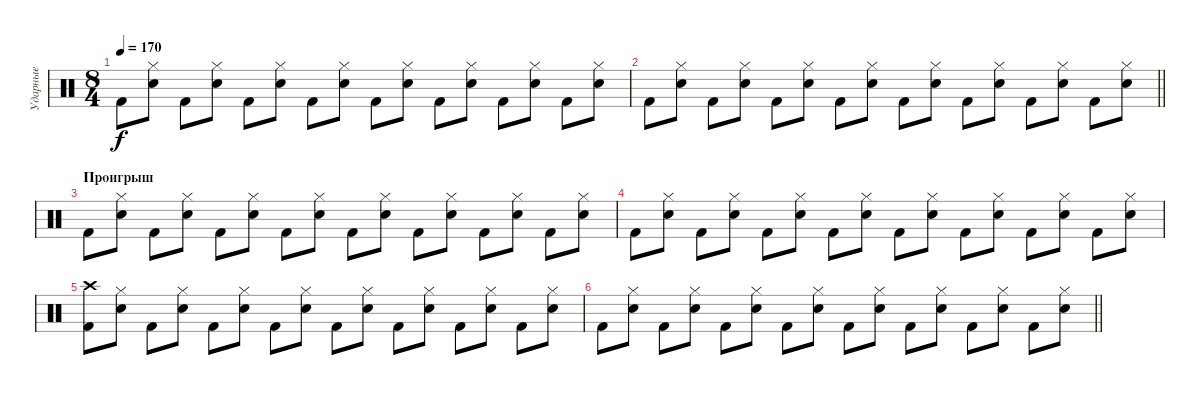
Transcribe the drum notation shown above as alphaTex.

\track ("Ударные" "Ударные") {instrument percussion}
\staff {score}
\articulation defaults
\ts (8 4)
\tempo 170
\clef neutral
\ks c "Kick (hit) 2".8{dy f}
("Hi-Hat (closed)" "Electric Snare (hit)").8 "Kick (hit) 2".8 ("Hi-Hat (closed)" "Electric Snare (hit)").8 "Kick (hit) 2".8 ("Hi-Hat (closed)" "Electric Snare (hit)").8 "Kick (hit) 2".8 ("Hi-Hat (closed)" "Electric Snare (hit)").8 "Kick (hit) 2".8 ("Hi-Hat (closed)" "Electric Snare (hit)").8 "Kick (hit) 2".8 ("Hi-Hat (closed)" "Electric Snare (hit)").8 "Kick (hit) 2".8 ("Hi-Hat (closed)" "Electric Snare (hit)").8 "Kick (hit) 2".8 ("Hi-Hat (closed)" "Electric Snare (hit)").8 |
\barLineRight lightlight "Kick (hit) 2".8
("Hi-Hat (closed)" "Electric Snare (hit)").8 "Kick (hit) 2".8 ("Hi-Hat (closed)" "Electric Snare (hit)").8 "Kick (hit) 2".8 ("Hi-Hat (closed)" "Electric Snare (hit)").8 "Kick (hit) 2".8 ("Hi-Hat (closed)" "Electric Snare (hit)").8 "Kick (hit) 2".8 ("Hi-Hat (closed)" "Electric Snare (hit)").8 "Kick (hit) 2".8 ("Hi-Hat (closed)" "Electric Snare (hit)").8 "Kick (hit) 2".8 ("Hi-Hat (closed)" "Electric Snare (hit)").8 "Kick (hit) 2".8 ("Hi-Hat (closed)" "Electric Snare (hit)").8 |
\section ("" "Проигрыш")
"Kick (hit) 2".8 ("Hi-Hat (closed)" "Electric Snare (hit)").8 "Kick (hit) 2".8 ("Hi-Hat (closed)" "Electric Snare (hit)").8 "Kick (hit) 2".8 ("Hi-Hat (closed)" "Electric Snare (hit)").8 "Kick (hit) 2".8 ("Hi-Hat (closed)" "Electric Snare (hit)").8 "Kick (hit) 2".8 ("Hi-Hat (closed)" "Electric Snare (hit)").8 "Kick (hit) 2".8 ("Hi-Hat (closed)" "Electric Snare (hit)").8 "Kick (hit) 2".8 ("Hi-Hat (closed)" "Electric Snare (hit)").8 "Kick (hit) 2".8 ("Hi-Hat (closed)" "Electric Snare (hit)").8 |
"Kick (hit) 2".8 ("Hi-Hat (closed)" "Electric Snare (hit)").8 "Kick (hit) 2".8 ("Hi-Hat (closed)" "Electric Snare (hit)").8 "Kick (hit) 2".8 ("Hi-Hat (closed)" "Electric Snare (hit)").8 "Kick (hit) 2".8 ("Hi-Hat (closed)" "Electric Snare (hit)").8 "Kick (hit) 2".8 ("Hi-Hat (closed)" "Electric Snare (hit)").8 "Kick (hit) 2".8 ("Hi-Hat (closed)" "Electric Snare (hit)").8 "Kick (hit) 2".8 ("Hi-Hat (closed)" "Electric Snare (hit)").8 "Kick (hit) 2".8 ("Hi-Hat (closed)" "Electric Snare (hit)").8 |
("Crash high (hit)" "Kick (hit) 2").8 ("Hi-Hat (closed)" "Electric Snare (hit)").8 "Kick (hit) 2".8 ("Hi-Hat (closed)" "Electric Snare (hit)").8 "Kick (hit) 2".8 ("Hi-Hat (closed)" "Electric Snare (hit)").8 "Kick (hit) 2".8 ("Hi-Hat (closed)" "Electric Snare (hit)").8 "Kick (hit) 2".8 ("Hi-Hat (closed)" "Electric Snare (hit)").8 "Kick (hit) 2".8 ("Hi-Hat (closed)" "Electric Snare (hit)").8 "Kick (hit) 2".8 ("Hi-Hat (closed)" "Electric Snare (hit)").8 "Kick (hit) 2".8 ("Hi-Hat (closed)" "Electric Snare (hit)").8 |
\barLineRight lightlight "Kick (hit) 2".8
("Hi-Hat (closed)" "Electric Snare (hit)").8 "Kick (hit) 2".8 ("Hi-Hat (closed)" "Electric Snare (hit)").8 "Kick (hit) 2".8 ("Hi-Hat (closed)" "Electric Snare (hit)").8 "Kick (hit) 2".8 ("Hi-Hat (closed)" "Electric Snare (hit)").8 "Kick (hit) 2".8 ("Hi-Hat (closed)" "Electric Snare (hit)").8 "Kick (hit) 2".8 ("Hi-Hat (closed)" "Electric Snare (hit)").8 "Kick (hit) 2".8 ("Hi-Hat (closed)" "Electric Snare (hit)").8 "Kick (hit) 2".8 ("Hi-Hat (closed)" "Electric Snare (hit)").8
